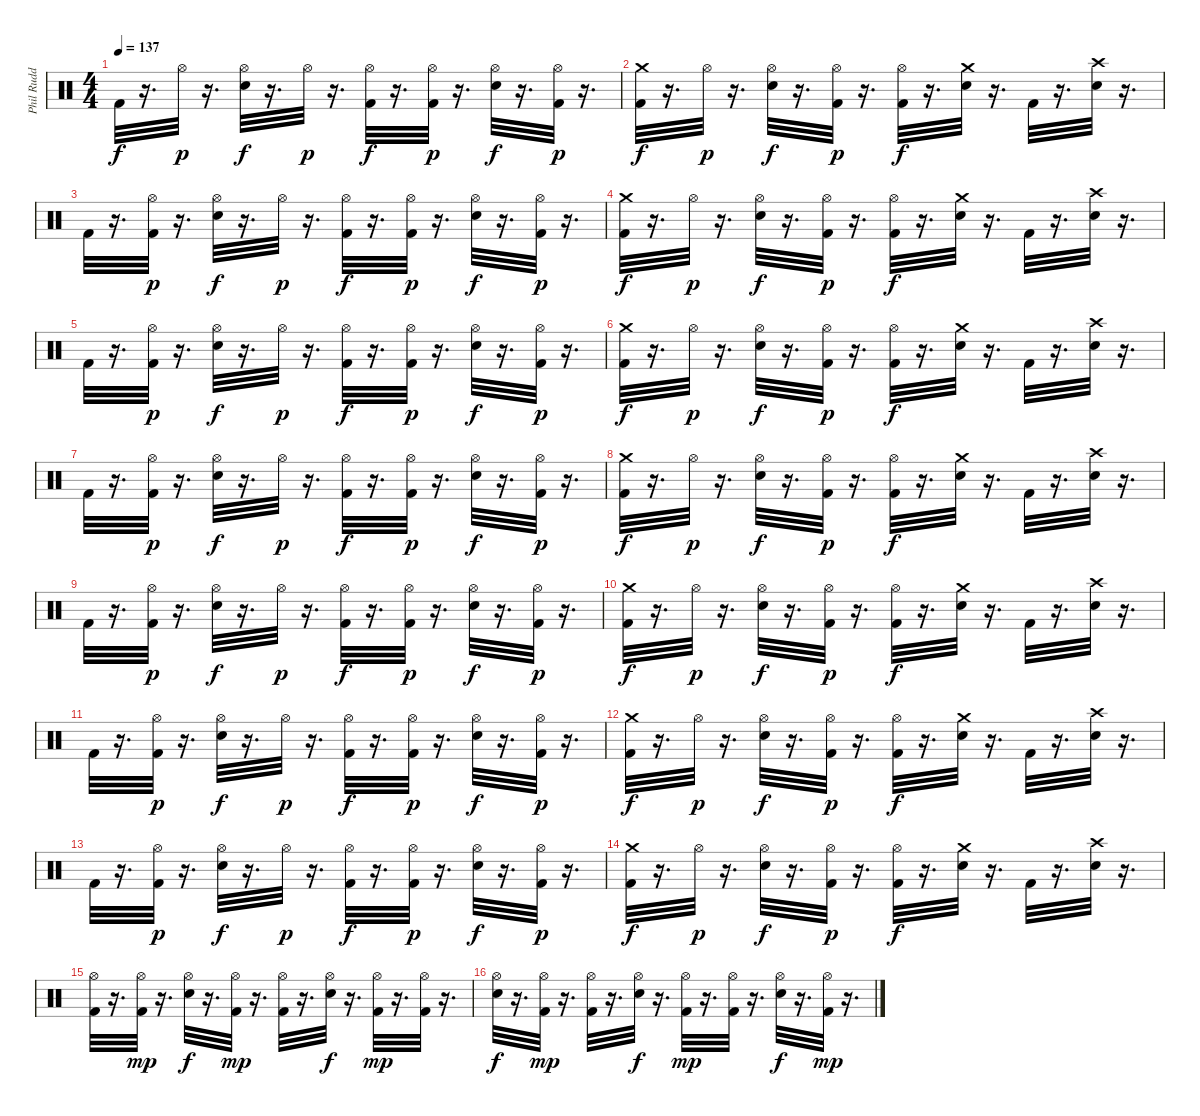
\track ("Phil Rudd" "Phil Rudd") {instrument percussion}
\staff
\articulation defaults
\ts (4 4)
\tempo 137
\clef neutral
\ks c "Kick (hit) 2".32{dy f}
r.16{d} "Hi-Hat (open)".32{dy p} r.16{d} ("Hi-Hat (open)" "Electric Snare (hit)").32{dy f} r.16{d} "Hi-Hat (open)".32{dy p} r.16{d} ("Hi-Hat (open)" "Kick (hit) 2").32{dy f} r.16{d} ("Hi-Hat (open)" "Kick (hit) 2").32{dy p} r.16{d} ("Hi-Hat (open)" "Electric Snare (hit)").32{dy f} r.16{d} ("Hi-Hat (open)" "Kick (hit) 2").32{dy p} r.16{d} |
("Crash medium (hit)" "Kick (hit) 2").32{dy f} r.16{d} "Hi-Hat (open)".32{dy p} r.16{d} ("Hi-Hat (open)" "Electric Snare (hit)").32{dy f} r.16{d} ("Kick (hit) 2" "Hi-Hat (open)").32{dy p} r.16{d} ("Hi-Hat (open)" "Kick (hit) 2").32{dy f} r.16{d} ("Crash medium (hit)" "Electric Snare (hit)").32 r.16{d} "Kick (hit) 2".32 r.16{d} ("Crash high (hit)" "Electric Snare (hit)").32 r.16{d} |
"Kick (hit) 2".32 r.16{d} ("Kick (hit) 2" "Hi-Hat (open)").32{dy p} r.16{d} ("Hi-Hat (open)" "Electric Snare (hit)").32{dy f} r.16{d} "Hi-Hat (open)".32{dy p} r.16{d} ("Hi-Hat (open)" "Kick (hit) 2").32{dy f} r.16{d} ("Hi-Hat (open)" "Kick (hit) 2").32{dy p} r.16{d} ("Hi-Hat (open)" "Electric Snare (hit)").32{dy f} r.16{d} ("Hi-Hat (open)" "Kick (hit) 2").32{dy p} r.16{d} |
("Crash medium (hit)" "Kick (hit) 2").32{dy f} r.16{d} "Hi-Hat (open)".32{dy p} r.16{d} ("Hi-Hat (open)" "Electric Snare (hit)").32{dy f} r.16{d} ("Kick (hit) 2" "Hi-Hat (open)").32{dy p} r.16{d} ("Hi-Hat (open)" "Kick (hit) 2").32{dy f} r.16{d} ("Crash medium (hit)" "Electric Snare (hit)").32 r.16{d} "Kick (hit) 2".32 r.16{d} ("Crash high (hit)" "Electric Snare (hit)").32 r.16{d} |
"Kick (hit) 2".32 r.16{d} ("Kick (hit) 2" "Hi-Hat (open)").32{dy p} r.16{d} ("Hi-Hat (open)" "Electric Snare (hit)").32{dy f} r.16{d} "Hi-Hat (open)".32{dy p} r.16{d} ("Hi-Hat (open)" "Kick (hit) 2").32{dy f} r.16{d} ("Hi-Hat (open)" "Kick (hit) 2").32{dy p} r.16{d} ("Hi-Hat (open)" "Electric Snare (hit)").32{dy f} r.16{d} ("Hi-Hat (open)" "Kick (hit) 2").32{dy p} r.16{d} |
("Crash medium (hit)" "Kick (hit) 2").32{dy f} r.16{d} "Hi-Hat (open)".32{dy p} r.16{d} ("Hi-Hat (open)" "Electric Snare (hit)").32{dy f} r.16{d} ("Kick (hit) 2" "Hi-Hat (open)").32{dy p} r.16{d} ("Hi-Hat (open)" "Kick (hit) 2").32{dy f} r.16{d} ("Crash medium (hit)" "Electric Snare (hit)").32 r.16{d} "Kick (hit) 2".32 r.16{d} ("Crash high (hit)" "Electric Snare (hit)").32 r.16{d} |
"Kick (hit) 2".32 r.16{d} ("Kick (hit) 2" "Hi-Hat (open)").32{dy p} r.16{d} ("Hi-Hat (open)" "Electric Snare (hit)").32{dy f} r.16{d} "Hi-Hat (open)".32{dy p} r.16{d} ("Hi-Hat (open)" "Kick (hit) 2").32{dy f} r.16{d} ("Hi-Hat (open)" "Kick (hit) 2").32{dy p} r.16{d} ("Hi-Hat (open)" "Electric Snare (hit)").32{dy f} r.16{d} ("Hi-Hat (open)" "Kick (hit) 2").32{dy p} r.16{d} |
("Crash medium (hit)" "Kick (hit) 2").32{dy f} r.16{d} "Hi-Hat (open)".32{dy p} r.16{d} ("Hi-Hat (open)" "Electric Snare (hit)").32{dy f} r.16{d} ("Kick (hit) 2" "Hi-Hat (open)").32{dy p} r.16{d} ("Hi-Hat (open)" "Kick (hit) 2").32{dy f} r.16{d} ("Crash medium (hit)" "Electric Snare (hit)").32 r.16{d} "Kick (hit) 2".32 r.16{d} ("Crash high (hit)" "Electric Snare (hit)").32 r.16{d} |
"Kick (hit) 2".32 r.16{d} ("Kick (hit) 2" "Hi-Hat (open)").32{dy p} r.16{d} ("Hi-Hat (open)" "Electric Snare (hit)").32{dy f} r.16{d} "Hi-Hat (open)".32{dy p} r.16{d} ("Hi-Hat (open)" "Kick (hit) 2").32{dy f} r.16{d} ("Hi-Hat (open)" "Kick (hit) 2").32{dy p} r.16{d} ("Hi-Hat (open)" "Electric Snare (hit)").32{dy f} r.16{d} ("Hi-Hat (open)" "Kick (hit) 2").32{dy p} r.16{d} |
("Crash medium (hit)" "Kick (hit) 2").32{dy f} r.16{d} "Hi-Hat (open)".32{dy p} r.16{d} ("Hi-Hat (open)" "Electric Snare (hit)").32{dy f} r.16{d} ("Kick (hit) 2" "Hi-Hat (open)").32{dy p} r.16{d} ("Hi-Hat (open)" "Kick (hit) 2").32{dy f} r.16{d} ("Crash medium (hit)" "Electric Snare (hit)").32 r.16{d} "Kick (hit) 2".32 r.16{d} ("Crash high (hit)" "Electric Snare (hit)").32 r.16{d} |
"Kick (hit) 2".32 r.16{d} ("Kick (hit) 2" "Hi-Hat (open)").32{dy p} r.16{d} ("Hi-Hat (open)" "Electric Snare (hit)").32{dy f} r.16{d} "Hi-Hat (open)".32{dy p} r.16{d} ("Hi-Hat (open)" "Kick (hit) 2").32{dy f} r.16{d} ("Hi-Hat (open)" "Kick (hit) 2").32{dy p} r.16{d} ("Hi-Hat (open)" "Electric Snare (hit)").32{dy f} r.16{d} ("Hi-Hat (open)" "Kick (hit) 2").32{dy p} r.16{d} |
("Crash medium (hit)" "Kick (hit) 2").32{dy f} r.16{d} "Hi-Hat (open)".32{dy p} r.16{d} ("Hi-Hat (open)" "Electric Snare (hit)").32{dy f} r.16{d} ("Kick (hit) 2" "Hi-Hat (open)").32{dy p} r.16{d} ("Hi-Hat (open)" "Kick (hit) 2").32{dy f} r.16{d} ("Crash medium (hit)" "Electric Snare (hit)").32 r.16{d} "Kick (hit) 2".32 r.16{d} ("Crash high (hit)" "Electric Snare (hit)").32 r.16{d} |
"Kick (hit) 2".32 r.16{d} ("Kick (hit) 2" "Hi-Hat (open)").32{dy p} r.16{d} ("Hi-Hat (open)" "Electric Snare (hit)").32{dy f} r.16{d} "Hi-Hat (open)".32{dy p} r.16{d} ("Hi-Hat (open)" "Kick (hit) 2").32{dy f} r.16{d} ("Hi-Hat (open)" "Kick (hit) 2").32{dy p} r.16{d} ("Hi-Hat (open)" "Electric Snare (hit)").32{dy f} r.16{d} ("Hi-Hat (open)" "Kick (hit) 2").32{dy p} r.16{d} |
("Crash medium (hit)" "Kick (hit) 2").32{dy f} r.16{d} "Hi-Hat (open)".32{dy p} r.16{d} ("Hi-Hat (open)" "Electric Snare (hit)").32{dy f} r.16{d} ("Kick (hit) 2" "Hi-Hat (open)").32{dy p} r.16{d} ("Hi-Hat (open)" "Kick (hit) 2").32{dy f} r.16{d} ("Crash medium (hit)" "Electric Snare (hit)").32 r.16{d} "Kick (hit) 2".32 r.16{d} ("Crash high (hit)" "Electric Snare (hit)").32 r.16{d} |
("Hi-Hat (open)" "Kick (hit) 2").32 r.16{d} ("Hi-Hat (open)" "Kick (hit) 2").32{dy mp} r.16{d} ("Hi-Hat (open)" "Electric Snare (hit)").32{dy f} r.16{d} ("Hi-Hat (open)" "Kick (hit) 2").32{dy mp} r.16{d} ("Hi-Hat (open)" "Kick (hit) 2").32 r.16{d} ("Hi-Hat (open)" "Electric Snare (hit)").32{dy f} r.16{d} ("Hi-Hat (open)" "Kick (hit) 2").32{dy mp} r.16{d} ("Hi-Hat (open)" "Kick (hit) 2").32 r.16{d} |
("Hi-Hat (open)" "Electric Snare (hit)").32{dy f} r.16{d} ("Hi-Hat (open)" "Kick (hit) 2").32{dy mp} r.16{d} ("Hi-Hat (open)" "Kick (hit) 2").32 r.16{d} ("Hi-Hat (open)" "Electric Snare (hit)").32{dy f} r.16{d} ("Hi-Hat (open)" "Kick (hit) 2").32{dy mp} r.16{d} ("Hi-Hat (open)" "Kick (hit) 2").32 r.16{d} ("Hi-Hat (open)" "Electric Snare (hit)").32{dy f} r.16{d} ("Hi-Hat (open)" "Kick (hit) 2").32{dy mp} r.16{d}
